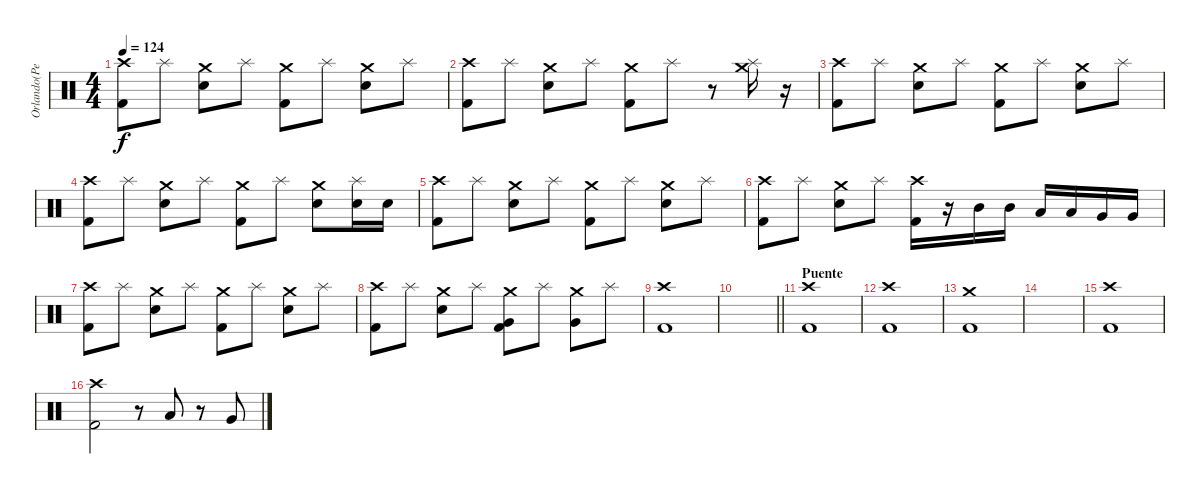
\track ("Orlando(Percusión)" "Orlando(Pe") {instrument percussion}
\staff {score}
\articulation defaults
\ts (4 4)
\tempo 124
\clef neutral
\ks c
("Crash high (hit)" "Kick (hit) 2").8{dy f} "Splash (hit)".8 ("Crash medium (hit)" "Electric Snare (hit)").8 "Splash (hit)".8 ("Crash medium (hit)" "Kick (hit) 2").8 "Splash (hit)".8 ("Crash medium (hit)" "Electric Snare (hit)").8 "Splash (hit)".8 |
("Crash high (hit)" "Kick (hit) 2").8 "Splash (hit)".8 ("Crash medium (hit)" "Electric Snare (hit)").8 "Splash (hit)".8 ("Crash medium (hit)" "Kick (hit) 2").8 "Splash (hit)".8 r.8 ("Splash (hit)" "Crash medium (hit)").16 r.16 |
("Crash high (hit)" "Kick (hit) 2").8 "Splash (hit)".8 ("Crash medium (hit)" "Electric Snare (hit)").8 "Splash (hit)".8 ("Crash medium (hit)" "Kick (hit) 2").8 "Splash (hit)".8 ("Crash medium (hit)" "Electric Snare (hit)").8 "Splash (hit)".8 |
("Crash high (hit)" "Kick (hit) 2").8 "Splash (hit)".8 ("Crash medium (hit)" "Electric Snare (hit)").8 "Splash (hit)".8 ("Crash medium (hit)" "Kick (hit) 2").8 "Splash (hit)".8 ("Crash medium (hit)" "Electric Snare (hit)").8 ("Splash (hit)" "Electric Snare (hit)").16 "Electric Snare (hit)".16 |
("Crash high (hit)" "Kick (hit) 2").8 "Splash (hit)".8 ("Crash medium (hit)" "Electric Snare (hit)").8 "Splash (hit)".8 ("Crash medium (hit)" "Kick (hit) 2").8 "Splash (hit)".8 ("Crash medium (hit)" "Electric Snare (hit)").8 "Splash (hit)".8 |
("Crash high (hit)" "Kick (hit) 2").8 "Splash (hit)".8 ("Crash medium (hit)" "Electric Snare (hit)").8 "Splash (hit)".8 ("Crash high (hit)" "Kick (hit) 2").16 r.16 "Mid Tom (hit)".16 "Mid Tom (hit)".16 "Low Tom (hit)".16 "Low Tom (hit)".16 "Very Low Tom (hit)".16 "Very Low Tom (hit)".16 |
("Crash high (hit)" "Kick (hit) 2").8 "Splash (hit)".8 ("Crash medium (hit)" "Electric Snare (hit)").8 "Splash (hit)".8 ("Crash medium (hit)" "Kick (hit) 2").8 "Splash (hit)".8 ("Crash medium (hit)" "Electric Snare (hit)").8 "Splash (hit)".8 |
("Crash high (hit)" "Kick (hit) 2").8 "Splash (hit)".8 ("Crash medium (hit)" "Electric Snare (hit)").8 "Splash (hit)".8 ("Crash medium (hit)" "Very Low Tom (hit)" "Kick (hit) 2").8 "Splash (hit)".8 ("Crash medium (hit)" "Very Low Tom (hit)").8 "Splash (hit)".8 |
("Crash high (hit)" "Kick (hit) 2").1 |
\barLineRight lightlight
|
\section ("" "Puente")
("Crash high (hit)" "Kick (hit) 2").1 |
("Crash high (hit)" "Kick (hit) 2").1 |
("Crash medium (hit)" "Kick (hit) 2").1 |
|
("Crash high (hit)" "Kick (hit) 2").1 |
("Crash high (hit)" "Kick (hit) 2").2 r.8 "Low Tom (hit)".8 r.8 "Very Low Tom (hit)".8
